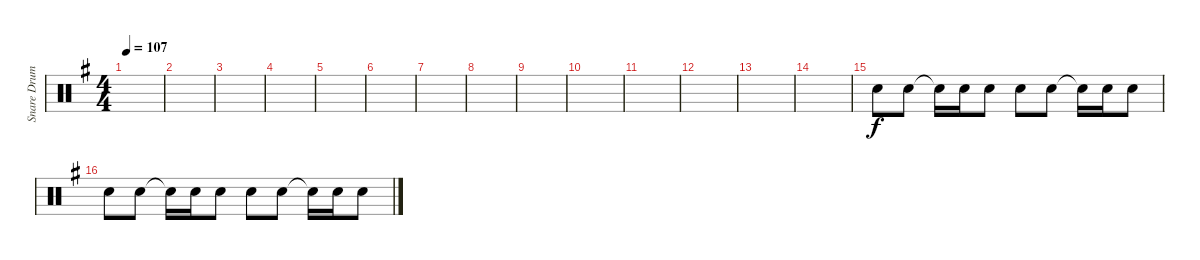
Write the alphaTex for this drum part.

\track ("Snare Drum" "Snare Drum") {instrument percussion}
\staff {score}
\articulation defaults
\ts (4 4)
\tempo 107
\clef neutral
\ks g
|
|
|
|
|
|
|
|
|
|
|
|
|
|
"Snare (hit) 2".8 "Snare (hit) 2".8 "Snare (hit) 2"{t}.16 "Snare (hit) 2".16 "Snare (hit) 2".8 "Snare (hit) 2".8 "Snare (hit) 2".8 "Snare (hit) 2"{t}.16 "Snare (hit) 2".16 "Snare (hit) 2".8 |
"Snare (hit) 2".8 "Snare (hit) 2".8 "Snare (hit) 2"{t}.16 "Snare (hit) 2".16 "Snare (hit) 2".8 "Snare (hit) 2".8 "Snare (hit) 2".8 "Snare (hit) 2"{t}.16 "Snare (hit) 2".16 "Snare (hit) 2".8
